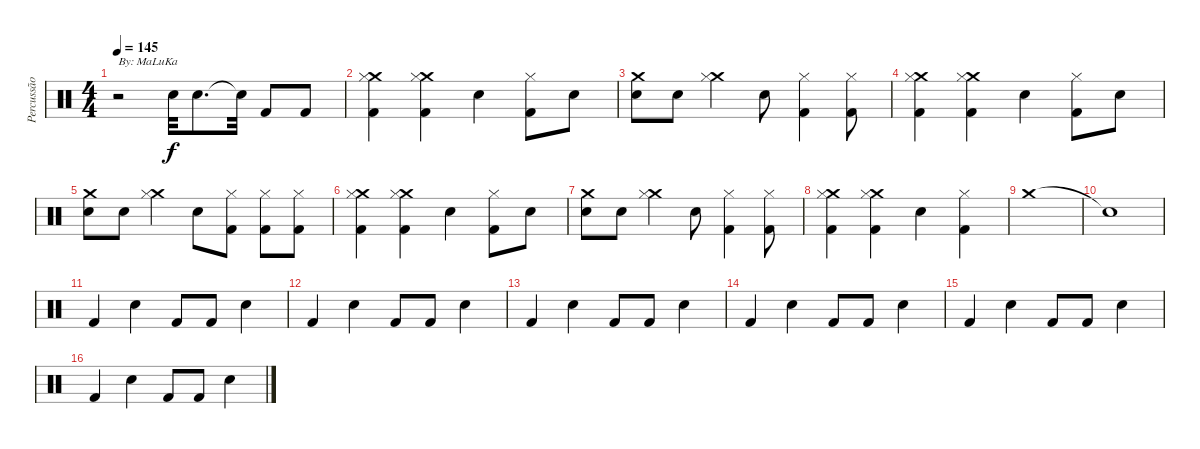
\track ("Percussão" "Percussão") {instrument percussion}
\staff {score}
\articulation defaults
\ts (4 4)
\tempo 145
\clef neutral
\ks c
r.2{txt "By: MaLuKa" dy f} "Snare (hit) 2".32 "Snare (hit) 2".8{d} "Snare (hit)"{t}.32 "Kick (hit) 2".8 "Kick (hit) 2".8 |
("Crash medium (hit)" "Hi-Hat (closed)" "Kick (hit) 2").4 ("Crash medium (hit)" "Hi-Hat (closed)" "Kick (hit) 2").4 "Snare (hit) 2".4 ("Hi-Hat (closed)" "Kick (hit) 2").8 "Snare (hit) 2".8 |
("Crash medium (hit)" "Snare (hit) 2").8 "Snare (hit) 2".8 ("Crash medium (hit)" "Hi-Hat (closed)").4 "Snare (hit) 2".8 ("Hi-Hat (closed)" "Kick (hit) 2").4 ("Hi-Hat (closed)" "Kick (hit) 2").8 |
("Crash medium (hit)" "Hi-Hat (closed)" "Kick (hit) 2").4 ("Crash medium (hit)" "Hi-Hat (closed)" "Kick (hit) 2").4 "Snare (hit) 2".4 ("Hi-Hat (closed)" "Kick (hit) 2").8 "Snare (hit) 2".8 |
("Crash medium (hit)" "Snare (hit) 2").8 "Snare (hit) 2".8 ("Crash medium (hit)" "Hi-Hat (closed)").4 "Snare (hit) 2".8 ("Hi-Hat (closed)" "Kick (hit) 2").8 ("Hi-Hat (closed)" "Kick (hit) 2").8 ("Hi-Hat (closed)" "Kick (hit) 2").8 |
("Crash medium (hit)" "Hi-Hat (closed)" "Kick (hit) 2").4 ("Crash medium (hit)" "Hi-Hat (closed)" "Kick (hit) 2").4 "Snare (hit) 2".4 ("Hi-Hat (closed)" "Kick (hit) 2").8 "Snare (hit) 2".8 |
("Crash medium (hit)" "Snare (hit) 2").8 "Snare (hit) 2".8 ("Crash medium (hit)" "Hi-Hat (closed)").4 "Snare (hit) 2".8 ("Hi-Hat (closed)" "Kick (hit) 2").4 ("Hi-Hat (closed)" "Kick (hit) 2").8 |
("Crash medium (hit)" "Hi-Hat (closed)" "Kick (hit) 2").4 ("Crash medium (hit)" "Hi-Hat (closed)" "Kick (hit) 2").4 "Snare (hit) 2".4 ("Hi-Hat (closed)" "Kick (hit) 2").4 |
"Crash medium (hit)".1 |
"Snare (hit)"{t}.1 |
"Kick (hit) 2".4 "Snare (hit) 2".4 "Kick (hit) 2".8 "Kick (hit) 2".8 "Snare (hit) 2".4 |
"Kick (hit) 2".4 "Snare (hit) 2".4 "Kick (hit) 2".8 "Kick (hit) 2".8 "Snare (hit) 2".4 |
"Kick (hit) 2".4 "Snare (hit) 2".4 "Kick (hit) 2".8 "Kick (hit) 2".8 "Snare (hit) 2".4 |
"Kick (hit) 2".4 "Snare (hit) 2".4 "Kick (hit) 2".8 "Kick (hit) 2".8 "Snare (hit) 2".4 |
"Kick (hit) 2".4 "Snare (hit) 2".4 "Kick (hit) 2".8 "Kick (hit) 2".8 "Snare (hit) 2".4 |
"Kick (hit) 2".4 "Snare (hit) 2".4 "Kick (hit) 2".8 "Kick (hit) 2".8 "Snare (hit) 2".4
